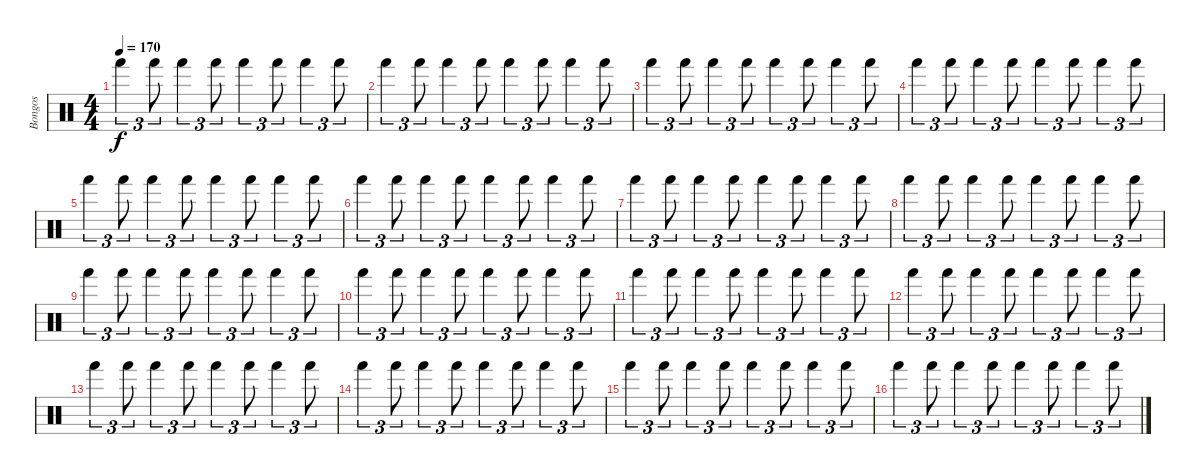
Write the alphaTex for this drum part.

\track ("Bongos" "Bongos") {instrument percussion}
\staff {score}
\articulation defaults
\ts (4 4)
\tempo 170
\clef neutral
\ks c "Hand (hit)".4{tu (3 2) dy f} "Hand (hit)".8{tu (3 2)} "Hand (hit)".4{tu (3 2)} "Hand (hit)".8{tu (3 2)} "Hand (hit)".4{tu (3 2)} "Hand (hit)".8{tu (3 2)} "Hand (hit)".4{tu (3 2)} "Hand (hit)".8{tu (3 2)}
|
"Hand (hit)".4{tu (3 2)} "Hand (hit)".8{tu (3 2)} "Hand (hit)".4{tu (3 2)} "Hand (hit)".8{tu (3 2)} "Hand (hit)".4{tu (3 2)} "Hand (hit)".8{tu (3 2)} "Hand (hit)".4{tu (3 2)} "Hand (hit)".8{tu (3 2)} |
"Hand (hit)".4{tu (3 2)} "Hand (hit)".8{tu (3 2)} "Hand (hit)".4{tu (3 2)} "Hand (hit)".8{tu (3 2)} "Hand (hit)".4{tu (3 2)} "Hand (hit)".8{tu (3 2)} "Hand (hit)".4{tu (3 2)} "Hand (hit)".8{tu (3 2)} |
"Hand (hit)".4{tu (3 2)} "Hand (hit)".8{tu (3 2)} "Hand (hit)".4{tu (3 2)} "Hand (hit)".8{tu (3 2)} "Hand (hit)".4{tu (3 2)} "Hand (hit)".8{tu (3 2)} "Hand (hit)".4{tu (3 2)} "Hand (hit)".8{tu (3 2)} |
"Hand (hit)".4{tu (3 2)} "Hand (hit)".8{tu (3 2)} "Hand (hit)".4{tu (3 2)} "Hand (hit)".8{tu (3 2)} "Hand (hit)".4{tu (3 2)} "Hand (hit)".8{tu (3 2)} "Hand (hit)".4{tu (3 2)} "Hand (hit)".8{tu (3 2)} |
"Hand (hit)".4{tu (3 2)} "Hand (hit)".8{tu (3 2)} "Hand (hit)".4{tu (3 2)} "Hand (hit)".8{tu (3 2)} "Hand (hit)".4{tu (3 2)} "Hand (hit)".8{tu (3 2)} "Hand (hit)".4{tu (3 2)} "Hand (hit)".8{tu (3 2)} |
"Hand (hit)".4{tu (3 2)} "Hand (hit)".8{tu (3 2)} "Hand (hit)".4{tu (3 2)} "Hand (hit)".8{tu (3 2)} "Hand (hit)".4{tu (3 2)} "Hand (hit)".8{tu (3 2)} "Hand (hit)".4{tu (3 2)} "Hand (hit)".8{tu (3 2)} |
"Hand (hit)".4{tu (3 2)} "Hand (hit)".8{tu (3 2)} "Hand (hit)".4{tu (3 2)} "Hand (hit)".8{tu (3 2)} "Hand (hit)".4{tu (3 2)} "Hand (hit)".8{tu (3 2)} "Hand (hit)".4{tu (3 2)} "Hand (hit)".8{tu (3 2)} |
"Hand (hit)".4{tu (3 2)} "Hand (hit)".8{tu (3 2)} "Hand (hit)".4{tu (3 2)} "Hand (hit)".8{tu (3 2)} "Hand (hit)".4{tu (3 2)} "Hand (hit)".8{tu (3 2)} "Hand (hit)".4{tu (3 2)} "Hand (hit)".8{tu (3 2)} |
"Hand (hit)".4{tu (3 2)} "Hand (hit)".8{tu (3 2)} "Hand (hit)".4{tu (3 2)} "Hand (hit)".8{tu (3 2)} "Hand (hit)".4{tu (3 2)} "Hand (hit)".8{tu (3 2)} "Hand (hit)".4{tu (3 2)} "Hand (hit)".8{tu (3 2)} |
"Hand (hit)".4{tu (3 2)} "Hand (hit)".8{tu (3 2)} "Hand (hit)".4{tu (3 2)} "Hand (hit)".8{tu (3 2)} "Hand (hit)".4{tu (3 2)} "Hand (hit)".8{tu (3 2)} "Hand (hit)".4{tu (3 2)} "Hand (hit)".8{tu (3 2)} |
"Hand (hit)".4{tu (3 2)} "Hand (hit)".8{tu (3 2)} "Hand (hit)".4{tu (3 2)} "Hand (hit)".8{tu (3 2)} "Hand (hit)".4{tu (3 2)} "Hand (hit)".8{tu (3 2)} "Hand (hit)".4{tu (3 2)} "Hand (hit)".8{tu (3 2)} |
"Hand (hit)".4{tu (3 2)} "Hand (hit)".8{tu (3 2)} "Hand (hit)".4{tu (3 2)} "Hand (hit)".8{tu (3 2)} "Hand (hit)".4{tu (3 2)} "Hand (hit)".8{tu (3 2)} "Hand (hit)".4{tu (3 2)} "Hand (hit)".8{tu (3 2)} |
"Hand (hit)".4{tu (3 2)} "Hand (hit)".8{tu (3 2)} "Hand (hit)".4{tu (3 2)} "Hand (hit)".8{tu (3 2)} "Hand (hit)".4{tu (3 2)} "Hand (hit)".8{tu (3 2)} "Hand (hit)".4{tu (3 2)} "Hand (hit)".8{tu (3 2)} |
"Hand (hit)".4{tu (3 2)} "Hand (hit)".8{tu (3 2)} "Hand (hit)".4{tu (3 2)} "Hand (hit)".8{tu (3 2)} "Hand (hit)".4{tu (3 2)} "Hand (hit)".8{tu (3 2)} "Hand (hit)".4{tu (3 2)} "Hand (hit)".8{tu (3 2)} |
"Hand (hit)".4{tu (3 2)} "Hand (hit)".8{tu (3 2)} "Hand (hit)".4{tu (3 2)} "Hand (hit)".8{tu (3 2)} "Hand (hit)".4{tu (3 2)} "Hand (hit)".8{tu (3 2)} "Hand (hit)".4{tu (3 2)} "Hand (hit)".8{tu (3 2)}
